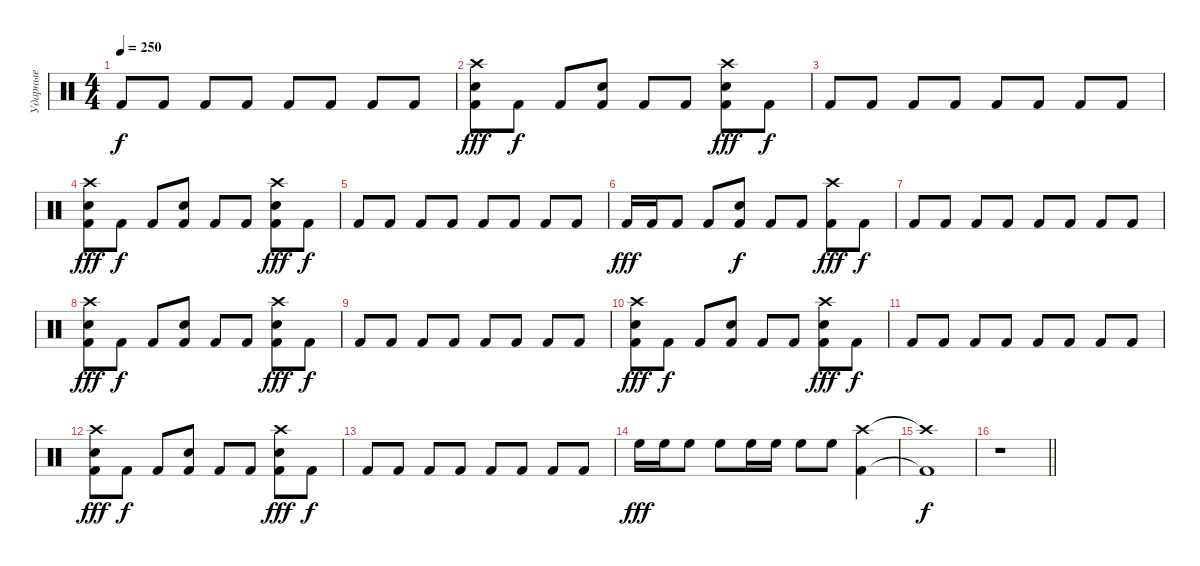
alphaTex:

\track ("Ударные" "Ударные") {instrument percussion}
\staff {score}
\articulation defaults
\ts (4 4)
\tempo 250
\clef neutral
\ks c "Kick (hit) 2".8{dy f} "Kick (hit) 2".8 "Kick (hit) 2".8 "Kick (hit) 2".8 "Kick (hit) 2".8 "Kick (hit) 2".8 "Kick (hit) 2".8 "Kick (hit) 2".8
|
("Kick (hit) 2" "Snare (hit) 2" "Crash high (hit)").8{dy fff} "Kick (hit) 2".8{dy f} "Kick (hit) 2".8 ("Kick (hit) 2" "Snare (hit) 2").8 "Kick (hit) 2".8 "Kick (hit) 2".8 ("Kick (hit) 2" "Snare (hit) 2" "Crash high (hit)").8{dy fff} "Kick (hit) 2".8{dy f} |
"Kick (hit) 2".8 "Kick (hit) 2".8 "Kick (hit) 2".8 "Kick (hit) 2".8 "Kick (hit) 2".8 "Kick (hit) 2".8 "Kick (hit) 2".8 "Kick (hit) 2".8 |
("Kick (hit) 2" "Snare (hit) 2" "Crash high (hit)").8{dy fff} "Kick (hit) 2".8{dy f} "Kick (hit) 2".8 ("Kick (hit) 2" "Snare (hit) 2").8 "Kick (hit) 2".8 "Kick (hit) 2".8 ("Kick (hit) 2" "Snare (hit) 2" "Crash high (hit)").8{dy fff} "Kick (hit) 2".8{dy f} |
"Kick (hit) 2".8 "Kick (hit) 2".8 "Kick (hit) 2".8 "Kick (hit) 2".8 "Kick (hit) 2".8 "Kick (hit) 2".8 "Kick (hit) 2".8 "Kick (hit) 2".8 |
"Kick (hit) 2".16{dy fff} "Kick (hit) 2".16 "Kick (hit) 2".8 "Kick (hit) 2".8 ("Kick (hit) 2" "Snare (hit) 2").8{dy f} "Kick (hit) 2".8 "Kick (hit) 2".8 ("Kick (hit) 2" "Crash high (hit)").8{dy fff} "Kick (hit) 2".8{dy f} |
"Kick (hit) 2".8 "Kick (hit) 2".8 "Kick (hit) 2".8 "Kick (hit) 2".8 "Kick (hit) 2".8 "Kick (hit) 2".8 "Kick (hit) 2".8 "Kick (hit) 2".8 |
("Kick (hit) 2" "Snare (hit) 2" "Crash high (hit)").8{dy fff} "Kick (hit) 2".8{dy f} "Kick (hit) 2".8 ("Kick (hit) 2" "Snare (hit) 2").8 "Kick (hit) 2".8 "Kick (hit) 2".8 ("Kick (hit) 2" "Snare (hit) 2" "Crash high (hit)").8{dy fff} "Kick (hit) 2".8{dy f} |
"Kick (hit) 2".8 "Kick (hit) 2".8 "Kick (hit) 2".8 "Kick (hit) 2".8 "Kick (hit) 2".8 "Kick (hit) 2".8 "Kick (hit) 2".8 "Kick (hit) 2".8 |
("Kick (hit) 2" "Snare (hit) 2" "Crash high (hit)").8{dy fff} "Kick (hit) 2".8{dy f} "Kick (hit) 2".8 ("Kick (hit) 2" "Snare (hit) 2").8 "Kick (hit) 2".8 "Kick (hit) 2".8 ("Kick (hit) 2" "Snare (hit) 2" "Crash high (hit)").8{dy fff} "Kick (hit) 2".8{dy f} |
"Kick (hit) 2".8 "Kick (hit) 2".8 "Kick (hit) 2".8 "Kick (hit) 2".8 "Kick (hit) 2".8 "Kick (hit) 2".8 "Kick (hit) 2".8 "Kick (hit) 2".8 |
("Kick (hit) 2" "Snare (hit) 2" "Crash high (hit)").8{dy fff} "Kick (hit) 2".8{dy f} "Kick (hit) 2".8 ("Kick (hit) 2" "Snare (hit) 2").8 "Kick (hit) 2".8 "Kick (hit) 2".8 ("Kick (hit) 2" "Snare (hit) 2" "Crash high (hit)").8{dy fff} "Kick (hit) 2".8{dy f} |
"Kick (hit) 2".8 "Kick (hit) 2".8 "Kick (hit) 2".8 "Kick (hit) 2".8 "Kick (hit) 2".8 "Kick (hit) 2".8 "Kick (hit) 2".8 "Kick (hit) 2".8 |
"High Floor Tom (hit)".16{dy fff} "High Floor Tom (hit)".16 "High Floor Tom (hit)".8 "High Floor Tom (hit)".8 "High Floor Tom (hit)".16 "High Floor Tom (hit)".16 "High Floor Tom (hit)".8 "High Floor Tom (hit)".8 ("Kick (hit) 2" "Crash high (hit)").4 |
("Kick (hit) 2"{t} "Crash high (hit)"{t}).1{dy f} |
\barLineRight lightlight
r.1
